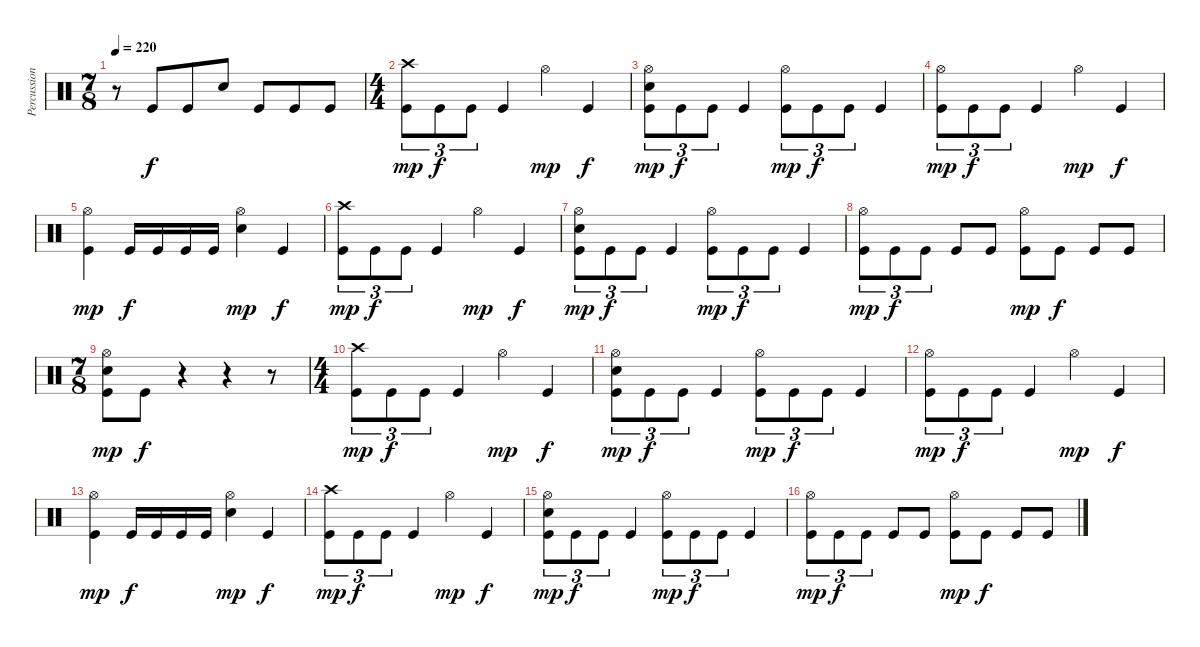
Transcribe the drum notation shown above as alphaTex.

\track ("Percussion" "Percussion") {instrument percussion}
\staff {score}
\articulation defaults
\ts (7 8)
\tempo 220
\clef neutral
\ks c
r.8{dy f} "Kick (hit)".8 "Kick (hit)".8 "Electric Snare (hit)".8 "Kick (hit)".8 "Kick (hit)".8 "Kick (hit)".8 |
\ts (4 4)
("Crash high (hit)" "Kick (hit)").8{tu (3 2) dy mp} "Kick (hit)".8{tu (3 2) dy f} "Kick (hit)".8{tu (3 2)} "Kick (hit)".4 "Hi-Hat (open)".4{dy mp} "Kick (hit)".4{dy f} |
("Hi-Hat (open)" "Electric Snare (hit)" "Kick (hit)").8{tu (3 2) dy mp} "Kick (hit)".8{tu (3 2) dy f} "Kick (hit)".8{tu (3 2)} "Kick (hit)".4 ("Hi-Hat (open)" "Kick (hit)").8{tu (3 2) dy mp} "Kick (hit)".8{tu (3 2) dy f} "Kick (hit)".8{tu (3 2)} "Kick (hit)".4 |
("Hi-Hat (open)" "Kick (hit)").8{tu (3 2) dy mp} "Kick (hit)".8{tu (3 2) dy f} "Kick (hit)".8{tu (3 2)} "Kick (hit)".4 "Hi-Hat (open)".4{dy mp} "Kick (hit)".4{dy f} |
("Hi-Hat (open)" "Kick (hit)").4{dy mp} "Kick (hit)".16{dy f} "Kick (hit)".16 "Kick (hit)".16 "Kick (hit)".16 ("Hi-Hat (open)" "Electric Snare (hit)").4{dy mp} "Kick (hit)".4{dy f} |
("Crash high (hit)" "Kick (hit)").8{tu (3 2) dy mp} "Kick (hit)".8{tu (3 2) dy f} "Kick (hit)".8{tu (3 2)} "Kick (hit)".4 "Hi-Hat (open)".4{dy mp} "Kick (hit)".4{dy f} |
("Hi-Hat (open)" "Electric Snare (hit)" "Kick (hit)").8{tu (3 2) dy mp} "Kick (hit)".8{tu (3 2) dy f} "Kick (hit)".8{tu (3 2)} "Kick (hit)".4 ("Hi-Hat (open)" "Kick (hit)").8{tu (3 2) dy mp} "Kick (hit)".8{tu (3 2) dy f} "Kick (hit)".8{tu (3 2)} "Kick (hit)".4 |
("Hi-Hat (open)" "Kick (hit)").8{tu (3 2) dy mp} "Kick (hit)".8{tu (3 2) dy f} "Kick (hit)".8{tu (3 2)} "Kick (hit)".8 "Kick (hit)".8 ("Hi-Hat (open)" "Kick (hit)").8{dy mp} "Kick (hit)".8{dy f} "Kick (hit)".8 "Kick (hit)".8 |
\ts (7 8)
("Hi-Hat (open)" "Electric Snare (hit)" "Kick (hit)").8{dy mp} "Kick (hit)".8{dy f} r.4 r.4 r.8 |
\ts (4 4)
("Crash high (hit)" "Kick (hit)").8{tu (3 2) dy mp} "Kick (hit)".8{tu (3 2) dy f} "Kick (hit)".8{tu (3 2)} "Kick (hit)".4 "Hi-Hat (open)".4{dy mp} "Kick (hit)".4{dy f} |
("Hi-Hat (open)" "Electric Snare (hit)" "Kick (hit)").8{tu (3 2) dy mp} "Kick (hit)".8{tu (3 2) dy f} "Kick (hit)".8{tu (3 2)} "Kick (hit)".4 ("Hi-Hat (open)" "Kick (hit)").8{tu (3 2) dy mp} "Kick (hit)".8{tu (3 2) dy f} "Kick (hit)".8{tu (3 2)} "Kick (hit)".4 |
("Hi-Hat (open)" "Kick (hit)").8{tu (3 2) dy mp} "Kick (hit)".8{tu (3 2) dy f} "Kick (hit)".8{tu (3 2)} "Kick (hit)".4 "Hi-Hat (open)".4{dy mp} "Kick (hit)".4{dy f} |
("Hi-Hat (open)" "Kick (hit)").4{dy mp} "Kick (hit)".16{dy f} "Kick (hit)".16 "Kick (hit)".16 "Kick (hit)".16 ("Hi-Hat (open)" "Electric Snare (hit)").4{dy mp} "Kick (hit)".4{dy f} |
("Crash high (hit)" "Kick (hit)").8{tu (3 2) dy mp} "Kick (hit)".8{tu (3 2) dy f} "Kick (hit)".8{tu (3 2)} "Kick (hit)".4 "Hi-Hat (open)".4{dy mp} "Kick (hit)".4{dy f} |
("Hi-Hat (open)" "Electric Snare (hit)" "Kick (hit)").8{tu (3 2) dy mp} "Kick (hit)".8{tu (3 2) dy f} "Kick (hit)".8{tu (3 2)} "Kick (hit)".4 ("Hi-Hat (open)" "Kick (hit)").8{tu (3 2) dy mp} "Kick (hit)".8{tu (3 2) dy f} "Kick (hit)".8{tu (3 2)} "Kick (hit)".4 |
("Hi-Hat (open)" "Kick (hit)").8{tu (3 2) dy mp} "Kick (hit)".8{tu (3 2) dy f} "Kick (hit)".8{tu (3 2)} "Kick (hit)".8 "Kick (hit)".8 ("Hi-Hat (open)" "Kick (hit)").8{dy mp} "Kick (hit)".8{dy f} "Kick (hit)".8 "Kick (hit)".8
